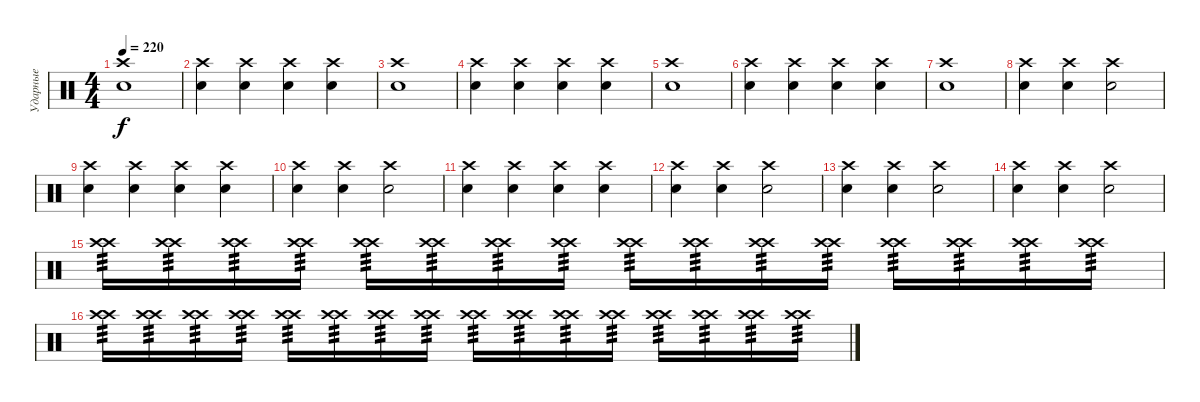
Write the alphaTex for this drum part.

\track ("Ударные" "Ударные") {instrument percussion}
\staff {score}
\articulation defaults
\ts (4 4)
\tempo 220
\clef neutral
\ks c
("Snare (hit) 2" "Crash high (hit)").1{dy f} |
("Snare (hit) 2" "Crash high (hit)").4 ("Snare (hit) 2" "Crash high (hit)").4 ("Snare (hit) 2" "Crash high (hit)").4 ("Snare (hit) 2" "Crash high (hit)").4 |
("Electric Snare (hit)" "Crash high (hit)").1 |
("Electric Snare (hit)" "Crash high (hit)").4 ("Electric Snare (hit)" "Crash high (hit)").4 ("Electric Snare (hit)" "Crash high (hit)").4 ("Electric Snare (hit)" "Crash high (hit)").4 |
("Snare (hit) 2" "Crash high (hit)").1 |
("Snare (hit) 2" "Crash high (hit)").4 ("Snare (hit) 2" "Crash high (hit)").4 ("Snare (hit) 2" "Crash high (hit)").4 ("Snare (hit) 2" "Crash high (hit)").4 |
("Electric Snare (hit)" "Crash high (hit)").1 |
("Electric Snare (hit)" "Crash high (hit)").4 ("Electric Snare (hit)" "Crash high (hit)").4 ("Electric Snare (hit)" "Crash high (hit)").2 |
("Snare (hit) 2" "Crash high (hit)").4 ("Snare (hit) 2" "Crash high (hit)").4 ("Snare (hit) 2" "Crash high (hit)").4 ("Snare (hit) 2" "Crash high (hit)").4 |
("Electric Snare (hit)" "Crash high (hit)").4 ("Electric Snare (hit)" "Crash high (hit)").4 ("Electric Snare (hit)" "Crash high (hit)").2 |
("Snare (hit) 2" "Crash high (hit)").4 ("Snare (hit) 2" "Crash high (hit)").4 ("Snare (hit) 2" "Crash high (hit)").4 ("Snare (hit) 2" "Crash high (hit)").4 |
("Electric Snare (hit)" "Crash high (hit)").4 ("Electric Snare (hit)" "Crash high (hit)").4 ("Electric Snare (hit)" "Crash high (hit)").2 |
("Electric Snare (hit)" "Crash high (hit)").4 ("Electric Snare (hit)" "Crash high (hit)").4 ("Electric Snare (hit)" "Crash high (hit)").2 |
("Electric Snare (hit)" "Crash high (hit)").4 ("Electric Snare (hit)" "Crash high (hit)").4 ("Electric Snare (hit)" "Crash high (hit)").2 |
("Crash high (hit)" "Crash high (hit)").16{tp 3} ("Crash high (hit)" "Crash high (hit)").16{tp 3} ("Crash high (hit)" "Crash high (hit)").16{tp 3} ("Crash high (hit)" "Crash high (hit)").16{tp 3} ("Crash high (hit)" "Crash high (hit)").16{tp 3} ("Crash high (hit)" "Crash high (hit)").16{tp 3} ("Crash high (hit)" "Crash high (hit)").16{tp 3} ("Crash high (hit)" "Crash high (hit)").16{tp 3} ("Crash high (hit)" "Crash high (hit)").16{tp 3} ("Crash high (hit)" "Crash high (hit)").16{tp 3} ("Crash high (hit)" "Crash high (hit)").16{tp 3} ("Crash high (hit)" "Crash high (hit)").16{tp 3} ("Crash high (hit)" "Crash high (hit)").16{tp 3} ("Crash high (hit)" "Crash high (hit)").16{tp 3} ("Crash high (hit)" "Crash high (hit)").16{tp 3} ("Crash high (hit)" "Crash high (hit)").16{tp 3} |
("Crash high (hit)" "Crash high (hit)").16{tp 3} ("Crash high (hit)" "Crash high (hit)").16{tp 3} ("Crash high (hit)" "Crash high (hit)").16{tp 3} ("Crash high (hit)" "Crash high (hit)").16{tp 3} ("Crash high (hit)" "Crash high (hit)").16{tp 3} ("Crash high (hit)" "Crash high (hit)").16{tp 3} ("Crash high (hit)" "Crash high (hit)").16{tp 3} ("Crash high (hit)" "Crash high (hit)").16{tp 3} ("Crash high (hit)" "Crash high (hit)").16{tp 3} ("Crash high (hit)" "Crash high (hit)").16{tp 3} ("Crash high (hit)" "Crash high (hit)").16{tp 3} ("Crash high (hit)" "Crash high (hit)").16{tp 3} ("Crash high (hit)" "Crash high (hit)").16{tp 3} ("Crash high (hit)" "Crash high (hit)").16{tp 3} ("Crash high (hit)" "Crash high (hit)").16{tp 3} ("Crash high (hit)" "Crash high (hit)").16{tp 3}
